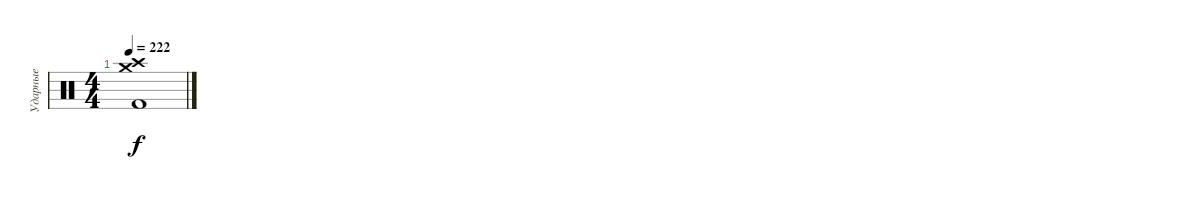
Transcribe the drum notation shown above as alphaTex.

\track ("Ударные" "Ударные") {instrument percussion}
\staff {score}
\articulation defaults
\ts (4 4)
\tempo 222
\clef neutral
\ks c
("Kick (hit) 2" "Crash medium (hit)" "Crash high (hit)").1{dy f}
